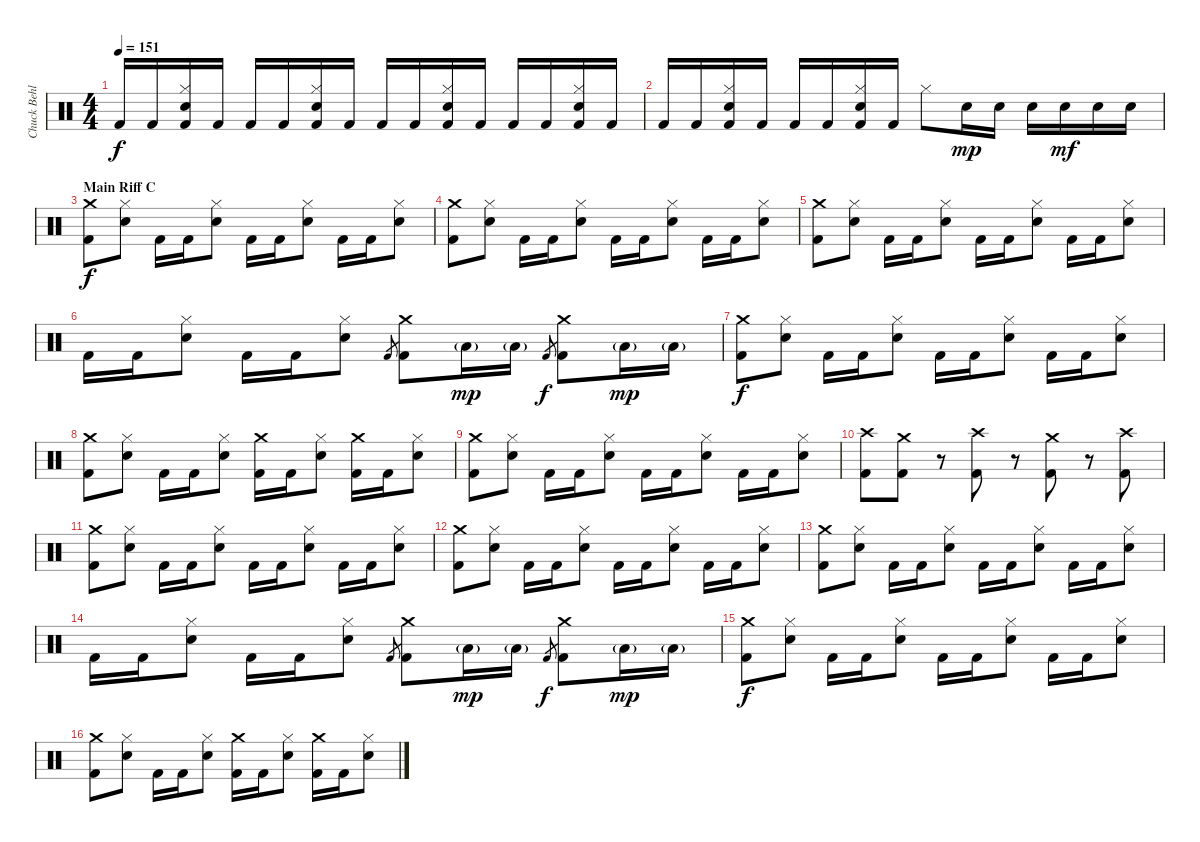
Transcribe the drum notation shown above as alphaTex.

\track ("Chuck Behler" "Chuck Behl") {instrument percussion}
\staff {score}
\articulation defaults
\ts (4 4)
\tempo 151
\clef neutral
\ks c "Kick (hit) 2".16{dy f} "Kick (hit) 2".16
("Hi-Hat (closed)" "Electric Snare (hit)" "Kick (hit) 2").16 "Kick (hit) 2".16 "Kick (hit) 2".16 "Kick (hit) 2".16 ("Hi-Hat (closed)" "Electric Snare (hit)" "Kick (hit) 2").16 "Kick (hit) 2".16 "Kick (hit) 2".16 "Kick (hit) 2".16 ("Hi-Hat (closed)" "Electric Snare (hit)" "Kick (hit) 2").16 "Kick (hit) 2".16 "Kick (hit) 2".16 "Kick (hit) 2".16 ("Hi-Hat (closed)" "Electric Snare (hit)" "Kick (hit) 2").16 "Kick (hit) 2".16 |
"Kick (hit) 2".16 "Kick (hit) 2".16 ("Hi-Hat (closed)" "Electric Snare (hit)" "Kick (hit) 2").16 "Kick (hit) 2".16 "Kick (hit) 2".16 "Kick (hit) 2".16 ("Hi-Hat (closed)" "Electric Snare (hit)" "Kick (hit) 2").16 "Kick (hit) 2".16 "Hi-Hat (closed)".8 "Electric Snare (hit)".16{dy mp} "Electric Snare (hit)".16 "Electric Snare (hit)".16 "Electric Snare (hit)".16{dy mf} "Electric Snare (hit)".16 "Electric Snare (hit)".16 |
\section ("" "Main Riff C")
("Crash medium (hit)" "Kick (hit) 2").8{dy f} ("Hi-Hat (closed)" "Electric Snare (hit)").8 "Kick (hit) 2".16 "Kick (hit) 2".16 ("Hi-Hat (closed)" "Electric Snare (hit)").8 "Kick (hit) 2".16 "Kick (hit) 2".16 ("Hi-Hat (closed)" "Electric Snare (hit)").8 "Kick (hit) 2".16 "Kick (hit) 2".16 ("Hi-Hat (closed)" "Electric Snare (hit)").8 |
("Crash medium (hit)" "Kick (hit) 2").8 ("Hi-Hat (closed)" "Electric Snare (hit)").8 "Kick (hit) 2".16 "Kick (hit) 2".16 ("Hi-Hat (closed)" "Electric Snare (hit)").8 "Kick (hit) 2".16 "Kick (hit) 2".16 ("Hi-Hat (closed)" "Electric Snare (hit)").8 "Kick (hit) 2".16 "Kick (hit) 2".16 ("Hi-Hat (closed)" "Electric Snare (hit)").8 |
("Crash medium (hit)" "Kick (hit) 2").8 ("Hi-Hat (closed)" "Electric Snare (hit)").8 "Kick (hit) 2".16 "Kick (hit) 2".16 ("Hi-Hat (closed)" "Electric Snare (hit)").8 "Kick (hit) 2".16 "Kick (hit) 2".16 ("Hi-Hat (closed)" "Electric Snare (hit)").8 "Kick (hit) 2".16 "Kick (hit) 2".16 ("Hi-Hat (closed)" "Electric Snare (hit)").8 |
"Kick (hit) 2".16 "Kick (hit) 2".16 ("Hi-Hat (closed)" "Electric Snare (hit)").8 "Kick (hit) 2".16 "Kick (hit) 2".16 ("Hi-Hat (closed)" "Electric Snare (hit)").8 "Kick (hit) 2".8{gr} ("Crash medium (hit)" "Kick (hit) 2").8 "Low Tom (hit)"{g}.16{dy mp} "Low Tom (hit)"{g}.16 "Kick (hit) 2".8{gr dy f} ("Crash medium (hit)" "Kick (hit) 2").8 "Low Tom (hit)"{g}.16{dy mp} "Low Tom (hit)"{g}.16 |
("Crash medium (hit)" "Kick (hit) 2").8{dy f} ("Hi-Hat (closed)" "Electric Snare (hit)").8 "Kick (hit) 2".16 "Kick (hit) 2".16 ("Hi-Hat (closed)" "Electric Snare (hit)").8 "Kick (hit) 2".16 "Kick (hit) 2".16 ("Hi-Hat (closed)" "Electric Snare (hit)").8 "Kick (hit) 2".16 "Kick (hit) 2".16 ("Hi-Hat (closed)" "Electric Snare (hit)").8 |
("Crash medium (hit)" "Kick (hit) 2").8 ("Hi-Hat (closed)" "Electric Snare (hit)").8 "Kick (hit) 2".16 "Kick (hit) 2".16 ("Hi-Hat (closed)" "Electric Snare (hit)").8 ("Crash medium (hit)" "Kick (hit) 2").16 "Kick (hit) 2".16 ("Hi-Hat (closed)" "Electric Snare (hit)").8 ("Crash medium (hit)" "Kick (hit) 2").16 "Kick (hit) 2".16 ("Hi-Hat (closed)" "Electric Snare (hit)").8 |
("Crash medium (hit)" "Kick (hit) 2").8 ("Hi-Hat (closed)" "Electric Snare (hit)").8 "Kick (hit) 2".16 "Kick (hit) 2".16 ("Hi-Hat (closed)" "Electric Snare (hit)").8 "Kick (hit) 2".16 "Kick (hit) 2".16 ("Hi-Hat (closed)" "Electric Snare (hit)").8 "Kick (hit) 2".16 "Kick (hit) 2".16 ("Hi-Hat (closed)" "Electric Snare (hit)").8 |
("Crash high (hit)" "Kick (hit) 2").8 ("Crash medium (hit)" "Kick (hit) 2").8 r.8 ("Crash high (hit)" "Kick (hit) 2").8 r.8 ("Crash medium (hit)" "Kick (hit) 2").8 r.8 ("Crash high (hit)" "Kick (hit) 2").8 |
("Crash medium (hit)" "Kick (hit) 2").8 ("Hi-Hat (closed)" "Electric Snare (hit)").8 "Kick (hit) 2".16 "Kick (hit) 2".16 ("Hi-Hat (closed)" "Electric Snare (hit)").8 "Kick (hit) 2".16 "Kick (hit) 2".16 ("Hi-Hat (closed)" "Electric Snare (hit)").8 "Kick (hit) 2".16 "Kick (hit) 2".16 ("Hi-Hat (closed)" "Electric Snare (hit)").8 |
("Crash medium (hit)" "Kick (hit) 2").8 ("Hi-Hat (closed)" "Electric Snare (hit)").8 "Kick (hit) 2".16 "Kick (hit) 2".16 ("Hi-Hat (closed)" "Electric Snare (hit)").8 "Kick (hit) 2".16 "Kick (hit) 2".16 ("Hi-Hat (closed)" "Electric Snare (hit)").8 "Kick (hit) 2".16 "Kick (hit) 2".16 ("Hi-Hat (closed)" "Electric Snare (hit)").8 |
("Crash medium (hit)" "Kick (hit) 2").8 ("Hi-Hat (closed)" "Electric Snare (hit)").8 "Kick (hit) 2".16 "Kick (hit) 2".16 ("Hi-Hat (closed)" "Electric Snare (hit)").8 "Kick (hit) 2".16 "Kick (hit) 2".16 ("Hi-Hat (closed)" "Electric Snare (hit)").8 "Kick (hit) 2".16 "Kick (hit) 2".16 ("Hi-Hat (closed)" "Electric Snare (hit)").8 |
"Kick (hit) 2".16 "Kick (hit) 2".16 ("Hi-Hat (closed)" "Electric Snare (hit)").8 "Kick (hit) 2".16 "Kick (hit) 2".16 ("Hi-Hat (closed)" "Electric Snare (hit)").8 "Kick (hit) 2".8{gr} ("Crash medium (hit)" "Kick (hit) 2").8 "Low Tom (hit)"{g}.16{dy mp} "Low Tom (hit)"{g}.16 "Kick (hit) 2".8{gr dy f} ("Crash medium (hit)" "Kick (hit) 2").8 "Low Tom (hit)"{g}.16{dy mp} "Low Tom (hit)"{g}.16 |
("Crash medium (hit)" "Kick (hit) 2").8{dy f} ("Hi-Hat (closed)" "Electric Snare (hit)").8 "Kick (hit) 2".16 "Kick (hit) 2".16 ("Hi-Hat (closed)" "Electric Snare (hit)").8 "Kick (hit) 2".16 "Kick (hit) 2".16 ("Hi-Hat (closed)" "Electric Snare (hit)").8 "Kick (hit) 2".16 "Kick (hit) 2".16 ("Hi-Hat (closed)" "Electric Snare (hit)").8 |
("Crash medium (hit)" "Kick (hit) 2").8 ("Hi-Hat (closed)" "Electric Snare (hit)").8 "Kick (hit) 2".16 "Kick (hit) 2".16 ("Hi-Hat (closed)" "Electric Snare (hit)").8 ("Crash medium (hit)" "Kick (hit) 2").16 "Kick (hit) 2".16 ("Hi-Hat (closed)" "Electric Snare (hit)").8 ("Crash medium (hit)" "Kick (hit) 2").16 "Kick (hit) 2".16 ("Hi-Hat (closed)" "Electric Snare (hit)").8
